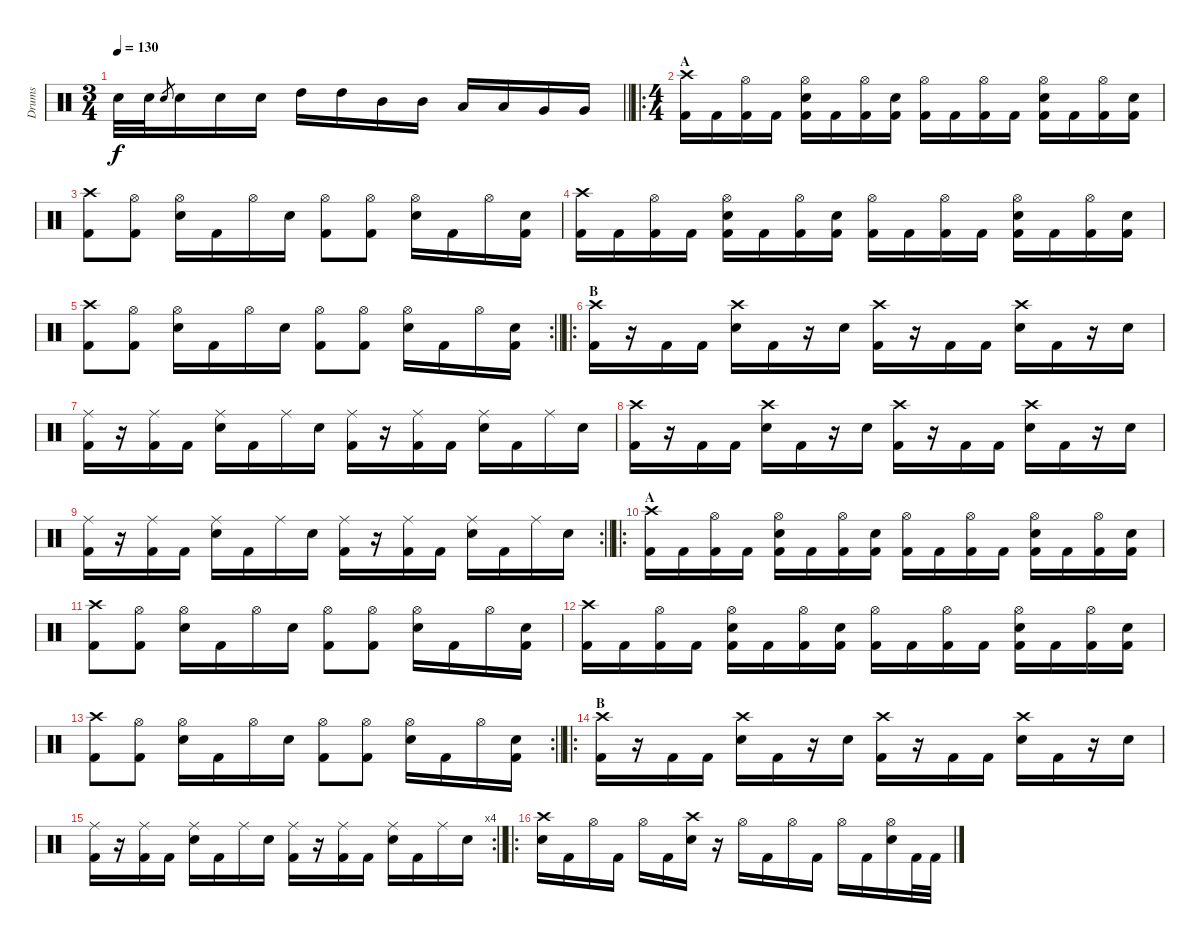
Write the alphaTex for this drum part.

\track ("Drums" "Drums") {instrument percussion}
\staff {score}
\articulation defaults
\ts (3 4)
\tempo 130
\clef neutral
\barLineRight lightlight
\ks c "Electric Snare (hit)".32{dy f} "Electric Snare (hit)".32 "Electric Snare (hit)".8{gr} "Electric Snare (hit)".16 "Electric Snare (hit)".16 "Electric Snare (hit)".16 "High Tom (hit)".16 "High Tom (hit)".16 "Mid Tom (hit)".16 "Mid Tom (hit)".16 "Low Tom (hit)".16 "Low Tom (hit)".16 "Very Low Tom (hit)".16 "Very Low Tom (hit)".16
|
\ro
\ts (4 4)
\section ("" "A")
("Crash high (hit)" "Kick (hit) 2").16 "Kick (hit) 2".16 ("Hi-Hat (open)" "Kick (hit) 2").16 "Kick (hit) 2".16 ("Hi-Hat (open)" "Electric Snare (hit)" "Kick (hit) 2").16 "Kick (hit) 2".16 ("Hi-Hat (open)" "Kick (hit) 2").16 ("Electric Snare (hit)" "Kick (hit) 2").16 ("Hi-Hat (open)" "Kick (hit) 2").16 "Kick (hit) 2".16 ("Hi-Hat (open)" "Kick (hit) 2").16 "Kick (hit) 2".16 ("Hi-Hat (open)" "Electric Snare (hit)" "Kick (hit) 2").16 "Kick (hit) 2".16 ("Hi-Hat (open)" "Kick (hit) 2").16 ("Electric Snare (hit)" "Kick (hit) 2").16 |
("Crash high (hit)" "Kick (hit) 2").8 ("Hi-Hat (open)" "Kick (hit) 2").8 ("Hi-Hat (open)" "Electric Snare (hit)").16 "Kick (hit) 2".16 "Hi-Hat (open)".16 "Electric Snare (hit)".16 ("Hi-Hat (open)" "Kick (hit) 2").8 ("Hi-Hat (open)" "Kick (hit) 2").8 ("Hi-Hat (open)" "Electric Snare (hit)").16 "Kick (hit) 2".16 "Hi-Hat (open)".16 ("Electric Snare (hit)" "Kick (hit) 2").16 |
("Crash high (hit)" "Kick (hit) 2").16 "Kick (hit) 2".16 ("Hi-Hat (open)" "Kick (hit) 2").16 "Kick (hit) 2".16 ("Hi-Hat (open)" "Electric Snare (hit)" "Kick (hit) 2").16 "Kick (hit) 2".16 ("Hi-Hat (open)" "Kick (hit) 2").16 ("Electric Snare (hit)" "Kick (hit) 2").16 ("Hi-Hat (open)" "Kick (hit) 2").16 "Kick (hit) 2".16 ("Hi-Hat (open)" "Kick (hit) 2").16 "Kick (hit) 2".16 ("Hi-Hat (open)" "Electric Snare (hit)" "Kick (hit) 2").16 "Kick (hit) 2".16 ("Hi-Hat (open)" "Kick (hit) 2").16 ("Electric Snare (hit)" "Kick (hit) 2").16 |
\rc 2
\barLineRight lightlight
("Crash high (hit)" "Kick (hit) 2").8 ("Hi-Hat (open)" "Kick (hit) 2").8 ("Hi-Hat (open)" "Electric Snare (hit)").16 "Kick (hit) 2".16 "Hi-Hat (open)".16 "Electric Snare (hit)".16 ("Hi-Hat (open)" "Kick (hit) 2").8 ("Hi-Hat (open)" "Kick (hit) 2").8 ("Hi-Hat (open)" "Electric Snare (hit)").16 "Kick (hit) 2".16 "Hi-Hat (open)".16 ("Electric Snare (hit)" "Kick (hit) 2").16 |
\ro
\section ("" "B")
("Crash high (hit)" "Kick (hit) 2").16 r.16 "Kick (hit) 2".16 "Kick (hit) 2".16 ("Crash high (hit)" "Electric Snare (hit)").16 "Kick (hit) 2".16 r.16 "Electric Snare (hit)".16 ("Crash high (hit)" "Kick (hit) 2").16 r.16 "Kick (hit) 2".16 "Kick (hit) 2".16 ("Crash high (hit)" "Electric Snare (hit)").16 "Kick (hit) 2".16 r.16 "Electric Snare (hit)".16 |
("Ride (middle)" "Kick (hit) 2").16 r.16 ("Ride (middle)" "Kick (hit) 2").16 "Kick (hit) 2".16 ("Ride (middle)" "Electric Snare (hit)").16 "Kick (hit) 2".16 "Ride (middle)".16 "Electric Snare (hit)".16 ("Ride (middle)" "Kick (hit) 2").16 r.16 ("Ride (middle)" "Kick (hit) 2").16 "Kick (hit) 2".16 ("Ride (middle)" "Electric Snare (hit)").16 "Kick (hit) 2".16 "Ride (middle)".16 "Electric Snare (hit)".16 |
("Crash high (hit)" "Kick (hit) 2").16 r.16 "Kick (hit) 2".16 "Kick (hit) 2".16 ("Crash high (hit)" "Electric Snare (hit)").16 "Kick (hit) 2".16 r.16 "Electric Snare (hit)".16 ("Crash high (hit)" "Kick (hit) 2").16 r.16 "Kick (hit) 2".16 "Kick (hit) 2".16 ("Crash high (hit)" "Electric Snare (hit)").16 "Kick (hit) 2".16 r.16 "Electric Snare (hit)".16 |
\rc 2
\barLineRight lightlight
("Ride (middle)" "Kick (hit) 2").16 r.16 ("Ride (middle)" "Kick (hit) 2").16 "Kick (hit) 2".16 ("Ride (middle)" "Electric Snare (hit)").16 "Kick (hit) 2".16 "Ride (middle)".16 "Electric Snare (hit)".16 ("Ride (middle)" "Kick (hit) 2").16 r.16 ("Ride (middle)" "Kick (hit) 2").16 "Kick (hit) 2".16 ("Ride (middle)" "Electric Snare (hit)").16 "Kick (hit) 2".16 "Ride (middle)".16 "Electric Snare (hit)".16 |
\ro
\section ("" "A")
("Crash high (hit)" "Kick (hit) 2").16 "Kick (hit) 2".16 ("Hi-Hat (open)" "Kick (hit) 2").16 "Kick (hit) 2".16 ("Hi-Hat (open)" "Electric Snare (hit)" "Kick (hit) 2").16 "Kick (hit) 2".16 ("Hi-Hat (open)" "Kick (hit) 2").16 ("Electric Snare (hit)" "Kick (hit) 2").16 ("Hi-Hat (open)" "Kick (hit) 2").16 "Kick (hit) 2".16 ("Hi-Hat (open)" "Kick (hit) 2").16 "Kick (hit) 2".16 ("Hi-Hat (open)" "Electric Snare (hit)" "Kick (hit) 2").16 "Kick (hit) 2".16 ("Hi-Hat (open)" "Kick (hit) 2").16 ("Electric Snare (hit)" "Kick (hit) 2").16 |
("Crash high (hit)" "Kick (hit) 2").8 ("Hi-Hat (open)" "Kick (hit) 2").8 ("Hi-Hat (open)" "Electric Snare (hit)").16 "Kick (hit) 2".16 "Hi-Hat (open)".16 "Electric Snare (hit)".16 ("Hi-Hat (open)" "Kick (hit) 2").8 ("Hi-Hat (open)" "Kick (hit) 2").8 ("Hi-Hat (open)" "Electric Snare (hit)").16 "Kick (hit) 2".16 "Hi-Hat (open)".16 ("Electric Snare (hit)" "Kick (hit) 2").16 |
("Crash high (hit)" "Kick (hit) 2").16 "Kick (hit) 2".16 ("Hi-Hat (open)" "Kick (hit) 2").16 "Kick (hit) 2".16 ("Hi-Hat (open)" "Electric Snare (hit)" "Kick (hit) 2").16 "Kick (hit) 2".16 ("Hi-Hat (open)" "Kick (hit) 2").16 ("Electric Snare (hit)" "Kick (hit) 2").16 ("Hi-Hat (open)" "Kick (hit) 2").16 "Kick (hit) 2".16 ("Hi-Hat (open)" "Kick (hit) 2").16 "Kick (hit) 2".16 ("Hi-Hat (open)" "Electric Snare (hit)" "Kick (hit) 2").16 "Kick (hit) 2".16 ("Hi-Hat (open)" "Kick (hit) 2").16 ("Electric Snare (hit)" "Kick (hit) 2").16 |
\rc 2
\barLineRight lightlight
("Crash high (hit)" "Kick (hit) 2").8 ("Hi-Hat (open)" "Kick (hit) 2").8 ("Hi-Hat (open)" "Electric Snare (hit)").16 "Kick (hit) 2".16 "Hi-Hat (open)".16 "Electric Snare (hit)".16 ("Hi-Hat (open)" "Kick (hit) 2").8 ("Hi-Hat (open)" "Kick (hit) 2").8 ("Hi-Hat (open)" "Electric Snare (hit)").16 "Kick (hit) 2".16 "Hi-Hat (open)".16 ("Electric Snare (hit)" "Kick (hit) 2").16 |
\ro
\section ("" "B")
("Crash high (hit)" "Kick (hit) 2").16 r.16 "Kick (hit) 2".16 "Kick (hit) 2".16 ("Crash high (hit)" "Electric Snare (hit)").16 "Kick (hit) 2".16 r.16 "Electric Snare (hit)".16 ("Crash high (hit)" "Kick (hit) 2").16 r.16 "Kick (hit) 2".16 "Kick (hit) 2".16 ("Crash high (hit)" "Electric Snare (hit)").16 "Kick (hit) 2".16 r.16 "Electric Snare (hit)".16 |
\rc 4
\barLineRight lightlight
("Ride (middle)" "Kick (hit) 2").16 r.16 ("Ride (middle)" "Kick (hit) 2").16 "Kick (hit) 2".16 ("Ride (middle)" "Electric Snare (hit)").16 "Kick (hit) 2".16 "Ride (middle)".16 "Electric Snare (hit)".16 ("Ride (middle)" "Kick (hit) 2").16 r.16 ("Ride (middle)" "Kick (hit) 2").16 "Kick (hit) 2".16 ("Ride (middle)" "Electric Snare (hit)").16 "Kick (hit) 2".16 "Ride (middle)".16 "Electric Snare (hit)".16 |
\ro
("Crash high (hit)" "Electric Snare (hit)").16 "Kick (hit) 2".16 "Hi-Hat (open)".16 "Kick (hit) 2".16 "Hi-Hat (open)".16 "Kick (hit) 2".16 ("Crash high (hit)" "Electric Snare (hit)").16 r.16 "Hi-Hat (open)".16 "Kick (hit) 2".16 "Hi-Hat (open)".16 "Kick (hit) 2".16 "Hi-Hat (open)".16 "Kick (hit) 2".16 ("Hi-Hat (open)" "Electric Snare (hit)").16 "Kick (hit) 2".32 "Kick (hit) 2".32
